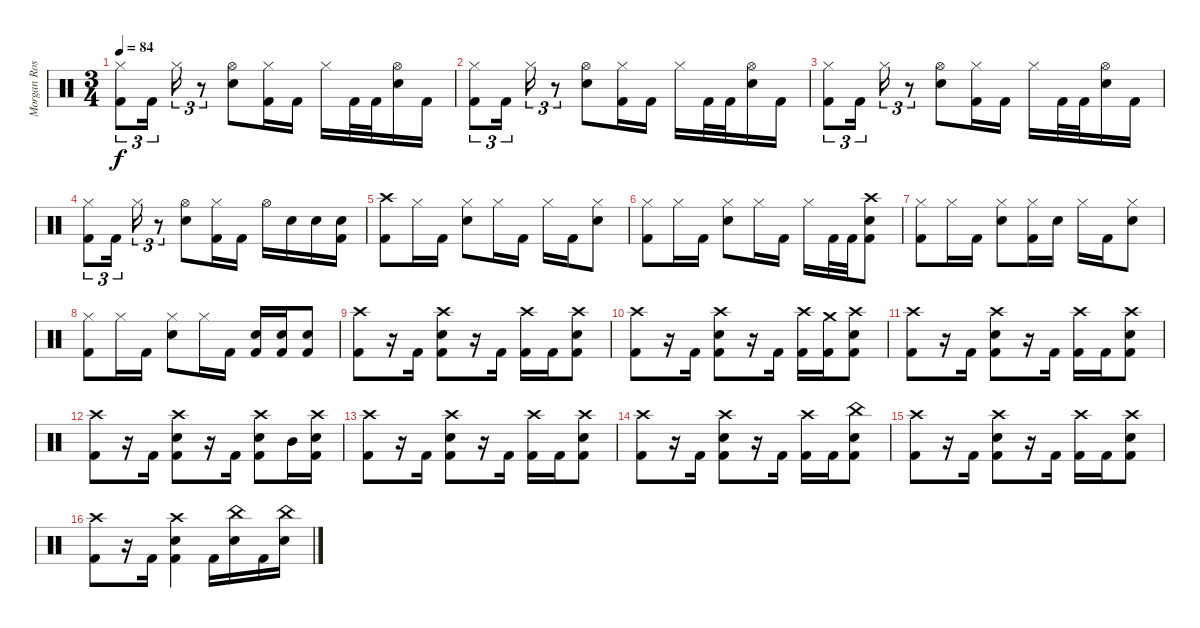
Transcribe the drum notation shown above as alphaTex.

\track ("Morgan Rose - Drums" "Morgan Ros") {instrument percussion}
\staff {score}
\articulation defaults
\ts (3 4)
\tempo 84
\clef neutral
\ks c
("Hi-Hat (closed)" "Kick (hit) 2").8{tu (3 2) dy f} "Kick (hit) 2".16{tu (3 2)} "Hi-Hat (closed)".16{tu (3 2)} r.8{tu (3 2)} ("Hi-Hat (open)" "Electric Snare (hit)").8 ("Hi-Hat (closed)" "Kick (hit) 2").16 "Kick (hit) 2".16 "Hi-Hat (closed)".16 "Kick (hit) 2".32 "Kick (hit) 2".32 ("Hi-Hat (open)" "Electric Snare (hit)").16 "Kick (hit) 2".16 |
("Hi-Hat (closed)" "Kick (hit) 2").8{tu (3 2)} "Kick (hit) 2".16{tu (3 2)} "Hi-Hat (closed)".16{tu (3 2)} r.8{tu (3 2)} ("Hi-Hat (open)" "Electric Snare (hit)").8 ("Hi-Hat (closed)" "Kick (hit) 2").16 "Kick (hit) 2".16 "Hi-Hat (closed)".16 "Kick (hit) 2".32 "Kick (hit) 2".32 ("Hi-Hat (open)" "Electric Snare (hit)").16 "Kick (hit) 2".16 |
("Hi-Hat (closed)" "Kick (hit) 2").8{tu (3 2)} "Kick (hit) 2".16{tu (3 2)} "Hi-Hat (closed)".16{tu (3 2)} r.8{tu (3 2)} ("Hi-Hat (open)" "Electric Snare (hit)").8 ("Hi-Hat (closed)" "Kick (hit) 2").16 "Kick (hit) 2".16 "Hi-Hat (closed)".16 "Kick (hit) 2".32 "Kick (hit) 2".32 ("Hi-Hat (open)" "Electric Snare (hit)").16 "Kick (hit) 2".16 |
("Hi-Hat (closed)" "Kick (hit) 2").8{tu (3 2)} "Kick (hit) 2".16{tu (3 2)} "Hi-Hat (closed)".16{tu (3 2)} r.8{tu (3 2)} ("Hi-Hat (open)" "Electric Snare (hit)").8 ("Hi-Hat (closed)" "Kick (hit) 2").16 "Kick (hit) 2".16 "Hi-Hat (open)".16 "Electric Snare (hit)".16 "Electric Snare (hit)".16 ("Electric Snare (hit)" "Kick (hit) 2").16 |
("Crash high (hit)" "Kick (hit) 2").8 "Hi-Hat (closed)".16 "Kick (hit) 2".16 ("Hi-Hat (closed)" "Electric Snare (hit)").8 "Hi-Hat (closed)".16 "Kick (hit) 2".16 "Hi-Hat (closed)".16 "Kick (hit) 2".16 ("Hi-Hat (closed)" "Electric Snare (hit)").8 |
("Hi-Hat (closed)" "Kick (hit) 2").8 "Hi-Hat (closed)".16 "Kick (hit) 2".16 ("Hi-Hat (closed)" "Electric Snare (hit)").8 "Hi-Hat (closed)".16 "Kick (hit) 2".16 "Hi-Hat (closed)".16 "Kick (hit) 2".32 "Kick (hit) 2".32 ("Crash high (hit)" "Electric Snare (hit)" "Kick (hit) 2").8 |
("Hi-Hat (closed)" "Kick (hit) 2").8 "Hi-Hat (closed)".16 "Kick (hit) 2".16 ("Hi-Hat (closed)" "Electric Snare (hit)").8 ("Hi-Hat (closed)" "Kick (hit) 2").16 "Electric Snare (hit)".16 "Hi-Hat (closed)".16 "Kick (hit) 2".16 ("Hi-Hat (closed)" "Electric Snare (hit)").8 |
("Hi-Hat (closed)" "Kick (hit) 2").8 "Hi-Hat (closed)".16 "Kick (hit) 2".16 ("Hi-Hat (closed)" "Electric Snare (hit)").8 "Hi-Hat (closed)".16 "Kick (hit) 2".16 ("Electric Snare (hit)" "Kick (hit) 2").16 ("Electric Snare (hit)" "Kick (hit) 2").16 ("Electric Snare (hit)" "Kick (hit) 2").8 |
("Crash high (hit)" "Kick (hit) 2").8 r.16 "Kick (hit) 2".16 ("Crash high (hit)" "Electric Snare (hit)" "Kick (hit) 2").8 r.16 "Kick (hit) 2".16 ("Crash high (hit)" "Kick (hit) 2").16 "Kick (hit) 2".16 ("Crash high (hit)" "Electric Snare (hit)" "Kick (hit) 2").8 |
("Crash high (hit)" "Kick (hit) 2").8 r.16 "Kick (hit) 2".16 ("Crash high (hit)" "Electric Snare (hit)" "Kick (hit) 2").8 r.16 "Kick (hit) 2".16 ("Crash high (hit)" "Kick (hit) 2").16 ("Crash medium (hit)" "Kick (hit) 2").16 ("Crash high (hit)" "Electric Snare (hit)" "Kick (hit) 2").8 |
("Crash high (hit)" "Kick (hit) 2").8 r.16 "Kick (hit) 2".16 ("Crash high (hit)" "Electric Snare (hit)" "Kick (hit) 2").8 r.16 "Kick (hit) 2".16 ("Crash high (hit)" "Kick (hit) 2").16 "Kick (hit) 2".16 ("Crash high (hit)" "Electric Snare (hit)" "Kick (hit) 2").8 |
("Crash high (hit)" "Kick (hit) 2").8 r.16 "Kick (hit) 2".16 ("Crash high (hit)" "Electric Snare (hit)" "Kick (hit) 2").8 r.16 "Kick (hit) 2".16 ("Crash high (hit)" "Electric Snare (hit)" "Kick (hit) 2").8 "Mid Tom (hit)".16 ("Crash high (hit)" "Electric Snare (hit)" "Kick (hit) 2").16 |
("Crash high (hit)" "Kick (hit) 2").8 r.16 "Kick (hit) 2".16 ("Crash high (hit)" "Electric Snare (hit)" "Kick (hit) 2").8 r.16 "Kick (hit) 2".16 ("Crash high (hit)" "Kick (hit) 2").16 "Kick (hit) 2".16 ("Crash high (hit)" "Electric Snare (hit)" "Kick (hit) 2").8 |
("Crash high (hit)" "Kick (hit) 2").8 r.16 "Kick (hit) 2".16 ("Crash high (hit)" "Electric Snare (hit)" "Kick (hit) 2").8 r.16 "Kick (hit) 2".16 ("Crash high (hit)" "Kick (hit) 2").16 "Kick (hit) 2".16 ("China (hit)" "Electric Snare (hit)" "Kick (hit) 2").8 |
("Crash high (hit)" "Kick (hit) 2").8 r.16 "Kick (hit) 2".16 ("Crash high (hit)" "Electric Snare (hit)" "Kick (hit) 2").8 r.16 "Kick (hit) 2".16 ("Crash high (hit)" "Kick (hit) 2").16 "Kick (hit) 2".16 ("Crash high (hit)" "Electric Snare (hit)" "Kick (hit) 2").8 |
("Crash high (hit)" "Kick (hit) 2").8 r.16 "Kick (hit) 2".16 ("Crash high (hit)" "Electric Snare (hit)" "Kick (hit) 2").4 "Kick (hit) 2".16 ("China (hit)" "Electric Snare (hit)").16 "Kick (hit) 2".16 ("China (hit)" "Electric Snare (hit)").16
